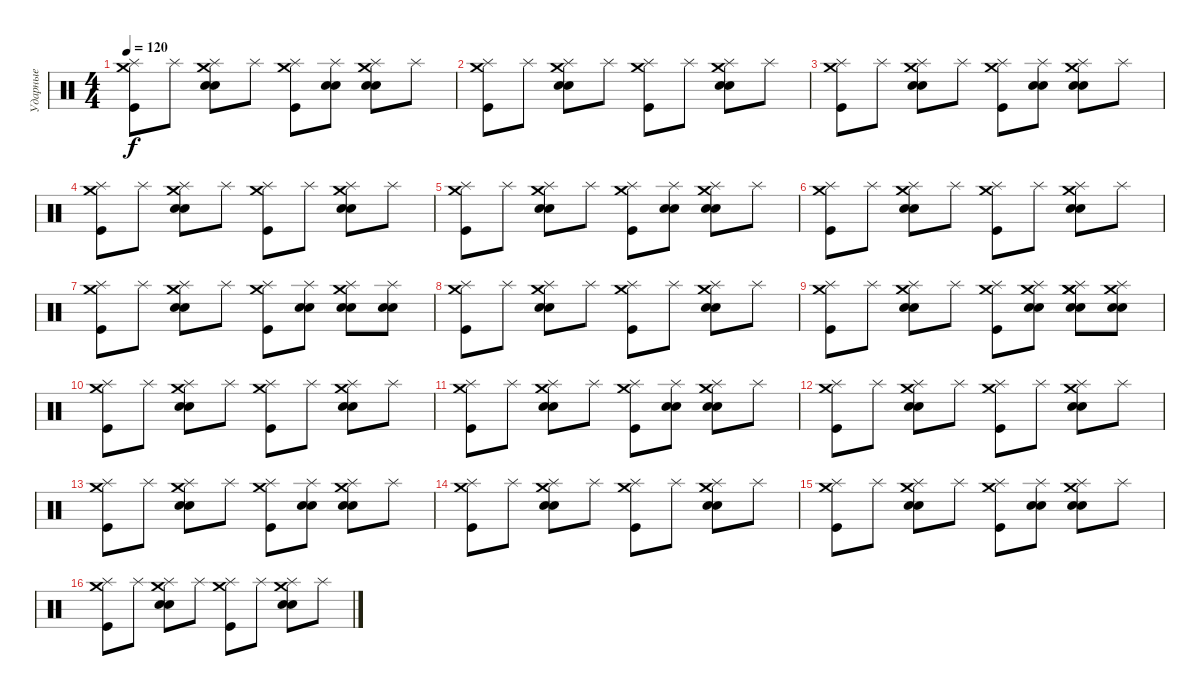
\track ("Ударные" "Ударные") {instrument percussion}
\staff {score}
\articulation defaults
\ts (4 4)
\tempo 120
\clef neutral
\ks c
("Crash medium (hit)" "Splash (hit)" "Kick (hit)").8{dy f} "Splash (hit)".8 ("Crash medium (hit)" "Splash (hit)" "Electric Snare (hit)" "Electric Snare (hit)").8 "Splash (hit)".8 ("Crash medium (hit)" "Splash (hit)" "Kick (hit)").8 ("Splash (hit)" "Snare (hit) 2" "Snare (hit) 2").8 ("Crash medium (hit)" "Splash (hit)" "Electric Snare (hit)" "Electric Snare (hit)").8 "Splash (hit)".8 |
("Crash medium (hit)" "Splash (hit)" "Kick (hit)").8 "Splash (hit)".8 ("Crash medium (hit)" "Splash (hit)" "Electric Snare (hit)" "Electric Snare (hit)").8 "Splash (hit)".8 ("Crash medium (hit)" "Splash (hit)" "Kick (hit)").8 "Splash (hit)".8 ("Crash medium (hit)" "Splash (hit)" "Electric Snare (hit)" "Electric Snare (hit)").8 "Splash (hit)".8 |
("Crash medium (hit)" "Splash (hit)" "Kick (hit)").8 "Splash (hit)".8 ("Crash medium (hit)" "Splash (hit)" "Electric Snare (hit)" "Electric Snare (hit)").8 "Splash (hit)".8 ("Crash medium (hit)" "Splash (hit)" "Kick (hit)").8 ("Splash (hit)" "Snare (hit) 2" "Snare (hit) 2").8 ("Crash medium (hit)" "Splash (hit)" "Electric Snare (hit)" "Electric Snare (hit)").8 "Splash (hit)".8 |
("Crash medium (hit)" "Splash (hit)" "Kick (hit)").8 "Splash (hit)".8 ("Crash medium (hit)" "Splash (hit)" "Electric Snare (hit)" "Electric Snare (hit)").8 "Splash (hit)".8 ("Crash medium (hit)" "Splash (hit)" "Kick (hit)").8 "Splash (hit)".8 ("Crash medium (hit)" "Splash (hit)" "Electric Snare (hit)" "Electric Snare (hit)").8 "Splash (hit)".8 |
("Crash medium (hit)" "Splash (hit)" "Kick (hit)").8 "Splash (hit)".8 ("Crash medium (hit)" "Splash (hit)" "Electric Snare (hit)" "Electric Snare (hit)").8 "Splash (hit)".8 ("Crash medium (hit)" "Splash (hit)" "Kick (hit)").8 ("Splash (hit)" "Snare (hit) 2" "Snare (hit) 2").8 ("Crash medium (hit)" "Splash (hit)" "Electric Snare (hit)" "Electric Snare (hit)").8 "Splash (hit)".8 |
("Crash medium (hit)" "Splash (hit)" "Kick (hit)").8 "Splash (hit)".8 ("Crash medium (hit)" "Splash (hit)" "Electric Snare (hit)" "Electric Snare (hit)").8 "Splash (hit)".8 ("Crash medium (hit)" "Splash (hit)" "Kick (hit)").8 "Splash (hit)".8 ("Crash medium (hit)" "Splash (hit)" "Electric Snare (hit)" "Electric Snare (hit)").8 "Splash (hit)".8 |
("Crash medium (hit)" "Splash (hit)" "Kick (hit)").8 "Splash (hit)".8 ("Crash medium (hit)" "Splash (hit)" "Electric Snare (hit)" "Electric Snare (hit)").8 "Splash (hit)".8 ("Crash medium (hit)" "Splash (hit)" "Kick (hit)").8 ("Splash (hit)" "Snare (hit) 2" "Snare (hit) 2").8 ("Crash medium (hit)" "Splash (hit)" "Electric Snare (hit)" "Electric Snare (hit)").8 ("Splash (hit)" "Snare (hit) 2" "Snare (hit) 2").8 |
("Crash medium (hit)" "Splash (hit)" "Kick (hit)").8 "Splash (hit)".8 ("Crash medium (hit)" "Splash (hit)" "Electric Snare (hit)" "Electric Snare (hit)").8 "Splash (hit)".8 ("Crash medium (hit)" "Splash (hit)" "Kick (hit)").8 "Splash (hit)".8 ("Crash medium (hit)" "Splash (hit)" "Electric Snare (hit)" "Electric Snare (hit)").8 "Splash (hit)".8 |
("Crash medium (hit)" "Splash (hit)" "Kick (hit)").8 "Splash (hit)".8 ("Crash medium (hit)" "Splash (hit)" "Electric Snare (hit)" "Electric Snare (hit)").8 "Splash (hit)".8 ("Crash medium (hit)" "Splash (hit)" "Kick (hit)").8 ("Splash (hit)" "Snare (hit) 2" "Snare (hit) 2" "Crash medium (hit)").8 ("Crash medium (hit)" "Splash (hit)" "Snare (hit) 2" "Snare (hit) 2" "Crash medium (hit)").8 ("Splash (hit)" "Snare (hit) 2" "Snare (hit) 2" "Crash medium (hit)").8 |
("Crash medium (hit)" "Splash (hit)" "Kick (hit)").8 "Splash (hit)".8 ("Crash medium (hit)" "Splash (hit)" "Electric Snare (hit)" "Electric Snare (hit)").8 "Splash (hit)".8 ("Crash medium (hit)" "Splash (hit)" "Kick (hit)").8 "Splash (hit)".8 ("Crash medium (hit)" "Splash (hit)" "Electric Snare (hit)" "Electric Snare (hit)").8 "Splash (hit)".8 |
("Crash medium (hit)" "Splash (hit)" "Kick (hit)").8 "Splash (hit)".8 ("Crash medium (hit)" "Splash (hit)" "Electric Snare (hit)" "Electric Snare (hit)").8 "Splash (hit)".8 ("Crash medium (hit)" "Splash (hit)" "Kick (hit)").8 ("Splash (hit)" "Snare (hit) 2" "Snare (hit) 2").8 ("Crash medium (hit)" "Splash (hit)" "Electric Snare (hit)" "Electric Snare (hit)").8 "Splash (hit)".8 |
("Crash medium (hit)" "Splash (hit)" "Kick (hit)").8 "Splash (hit)".8 ("Crash medium (hit)" "Splash (hit)" "Electric Snare (hit)" "Electric Snare (hit)").8 "Splash (hit)".8 ("Crash medium (hit)" "Splash (hit)" "Kick (hit)").8 "Splash (hit)".8 ("Crash medium (hit)" "Splash (hit)" "Electric Snare (hit)" "Electric Snare (hit)").8 "Splash (hit)".8 |
("Crash medium (hit)" "Splash (hit)" "Kick (hit)").8 "Splash (hit)".8 ("Crash medium (hit)" "Splash (hit)" "Electric Snare (hit)" "Electric Snare (hit)").8 "Splash (hit)".8 ("Crash medium (hit)" "Splash (hit)" "Kick (hit)").8 ("Splash (hit)" "Snare (hit) 2" "Snare (hit) 2").8 ("Crash medium (hit)" "Splash (hit)" "Electric Snare (hit)" "Electric Snare (hit)").8 "Splash (hit)".8 |
("Crash medium (hit)" "Splash (hit)" "Kick (hit)").8 "Splash (hit)".8 ("Crash medium (hit)" "Splash (hit)" "Electric Snare (hit)" "Electric Snare (hit)").8 "Splash (hit)".8 ("Crash medium (hit)" "Splash (hit)" "Kick (hit)").8 "Splash (hit)".8 ("Crash medium (hit)" "Splash (hit)" "Electric Snare (hit)" "Electric Snare (hit)").8 "Splash (hit)".8 |
("Crash medium (hit)" "Splash (hit)" "Kick (hit)").8 "Splash (hit)".8 ("Crash medium (hit)" "Splash (hit)" "Electric Snare (hit)" "Electric Snare (hit)").8 "Splash (hit)".8 ("Crash medium (hit)" "Splash (hit)" "Kick (hit)").8 ("Splash (hit)" "Snare (hit) 2" "Snare (hit) 2").8 ("Crash medium (hit)" "Splash (hit)" "Electric Snare (hit)" "Electric Snare (hit)").8 "Splash (hit)".8 |
("Crash medium (hit)" "Splash (hit)" "Kick (hit)").8 "Splash (hit)".8 ("Crash medium (hit)" "Splash (hit)" "Electric Snare (hit)" "Electric Snare (hit)").8 "Splash (hit)".8 ("Crash medium (hit)" "Splash (hit)" "Kick (hit)").8 "Splash (hit)".8 ("Crash medium (hit)" "Splash (hit)" "Electric Snare (hit)" "Electric Snare (hit)").8 "Splash (hit)".8
